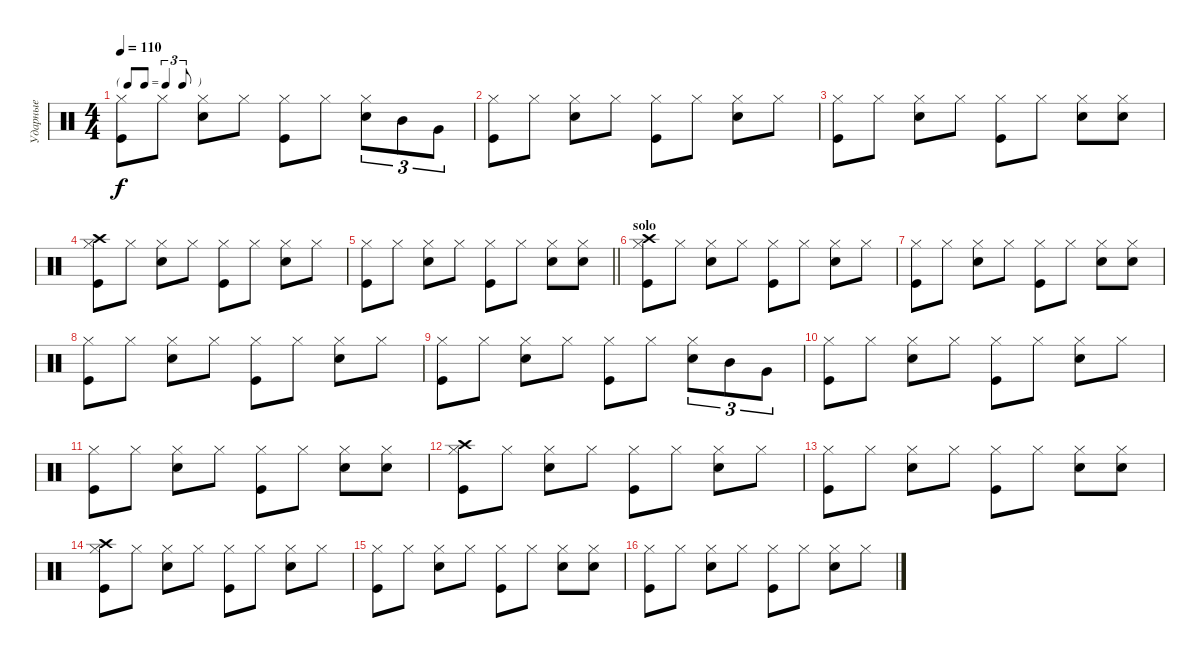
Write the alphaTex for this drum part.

\track ("Ударные" "Ударные") {instrument percussion}
\staff {score}
\articulation defaults
\ts (4 4)
\tf triplet8th
\tempo 110
\clef neutral
\ks c
("Hi-Hat (closed)" "Kick (hit)").8{dy f} "Hi-Hat (closed)".8 ("Hi-Hat (closed)" "Snare (hit) 2").8 "Hi-Hat (closed)".8 ("Hi-Hat (closed)" "Kick (hit)").8 "Hi-Hat (closed)".8 ("Hi-Hat (closed)" "Snare (hit) 2").8{tu (3 2)} "Mid Tom (hit)".8{tu (3 2)} "Very Low Tom (hit)".8{tu (3 2)} |
("Hi-Hat (closed)" "Kick (hit)").8 "Hi-Hat (closed)".8 ("Hi-Hat (closed)" "Snare (hit) 2").8 "Hi-Hat (closed)".8 ("Hi-Hat (closed)" "Kick (hit)").8 "Hi-Hat (closed)".8 ("Hi-Hat (closed)" "Snare (hit) 2").8 "Hi-Hat (closed)".8 |
("Hi-Hat (closed)" "Kick (hit)").8 "Hi-Hat (closed)".8 ("Hi-Hat (closed)" "Snare (hit) 2").8 "Hi-Hat (closed)".8 ("Hi-Hat (closed)" "Kick (hit)").8 "Hi-Hat (closed)".8 ("Hi-Hat (closed)" "Snare (hit) 2").8 ("Hi-Hat (closed)" "Snare (hit) 2").8 |
("Hi-Hat (closed)" "Kick (hit)" "Crash high (hit)").8 "Hi-Hat (closed)".8 ("Hi-Hat (closed)" "Snare (hit) 2").8 "Hi-Hat (closed)".8 ("Hi-Hat (closed)" "Kick (hit)").8 "Hi-Hat (closed)".8 ("Hi-Hat (closed)" "Snare (hit) 2").8 "Hi-Hat (closed)".8 |
\barLineRight lightlight
("Hi-Hat (closed)" "Kick (hit)").8 "Hi-Hat (closed)".8 ("Hi-Hat (closed)" "Snare (hit) 2").8 "Hi-Hat (closed)".8 ("Hi-Hat (closed)" "Kick (hit)").8 "Hi-Hat (closed)".8 ("Hi-Hat (closed)" "Snare (hit) 2").8 ("Hi-Hat (closed)" "Snare (hit) 2").8 |
\section ("" "solo")
("Hi-Hat (closed)" "Kick (hit)" "Crash high (hit)").8 "Hi-Hat (closed)".8 ("Hi-Hat (closed)" "Snare (hit) 2").8 "Hi-Hat (closed)".8 ("Hi-Hat (closed)" "Kick (hit)").8 "Hi-Hat (closed)".8 ("Hi-Hat (closed)" "Snare (hit) 2").8 "Hi-Hat (closed)".8 |
("Hi-Hat (closed)" "Kick (hit)").8 "Hi-Hat (closed)".8 ("Hi-Hat (closed)" "Snare (hit) 2").8 "Hi-Hat (closed)".8 ("Hi-Hat (closed)" "Kick (hit)").8 "Hi-Hat (closed)".8 ("Hi-Hat (closed)" "Snare (hit) 2").8 ("Hi-Hat (closed)" "Snare (hit) 2").8 |
("Hi-Hat (closed)" "Kick (hit)").8 "Hi-Hat (closed)".8 ("Hi-Hat (closed)" "Snare (hit) 2").8 "Hi-Hat (closed)".8 ("Hi-Hat (closed)" "Kick (hit)").8 "Hi-Hat (closed)".8 ("Hi-Hat (closed)" "Snare (hit) 2").8 "Hi-Hat (closed)".8 |
("Hi-Hat (closed)" "Kick (hit)").8 "Hi-Hat (closed)".8 ("Hi-Hat (closed)" "Snare (hit) 2").8 "Hi-Hat (closed)".8 ("Hi-Hat (closed)" "Kick (hit)").8 "Hi-Hat (closed)".8 ("Hi-Hat (closed)" "Snare (hit) 2").8{tu (3 2)} "Mid Tom (hit)".8{tu (3 2)} "Very Low Tom (hit)".8{tu (3 2)} |
("Hi-Hat (closed)" "Kick (hit)").8 "Hi-Hat (closed)".8 ("Hi-Hat (closed)" "Snare (hit) 2").8 "Hi-Hat (closed)".8 ("Hi-Hat (closed)" "Kick (hit)").8 "Hi-Hat (closed)".8 ("Hi-Hat (closed)" "Snare (hit) 2").8 "Hi-Hat (closed)".8 |
("Hi-Hat (closed)" "Kick (hit)").8 "Hi-Hat (closed)".8 ("Hi-Hat (closed)" "Snare (hit) 2").8 "Hi-Hat (closed)".8 ("Hi-Hat (closed)" "Kick (hit)").8 "Hi-Hat (closed)".8 ("Hi-Hat (closed)" "Snare (hit) 2").8 ("Hi-Hat (closed)" "Snare (hit) 2").8 |
("Hi-Hat (closed)" "Kick (hit)" "Crash high (hit)").8 "Hi-Hat (closed)".8 ("Hi-Hat (closed)" "Snare (hit) 2").8 "Hi-Hat (closed)".8 ("Hi-Hat (closed)" "Kick (hit)").8 "Hi-Hat (closed)".8 ("Hi-Hat (closed)" "Snare (hit) 2").8 "Hi-Hat (closed)".8 |
("Hi-Hat (closed)" "Kick (hit)").8 "Hi-Hat (closed)".8 ("Hi-Hat (closed)" "Snare (hit) 2").8 "Hi-Hat (closed)".8 ("Hi-Hat (closed)" "Kick (hit)").8 "Hi-Hat (closed)".8 ("Hi-Hat (closed)" "Snare (hit) 2").8 ("Hi-Hat (closed)" "Snare (hit) 2").8 |
("Hi-Hat (closed)" "Kick (hit)" "Crash high (hit)").8 "Hi-Hat (closed)".8 ("Hi-Hat (closed)" "Snare (hit) 2").8 "Hi-Hat (closed)".8 ("Hi-Hat (closed)" "Kick (hit)").8 "Hi-Hat (closed)".8 ("Hi-Hat (closed)" "Snare (hit) 2").8 "Hi-Hat (closed)".8 |
("Hi-Hat (closed)" "Kick (hit)").8 "Hi-Hat (closed)".8 ("Hi-Hat (closed)" "Snare (hit) 2").8 "Hi-Hat (closed)".8 ("Hi-Hat (closed)" "Kick (hit)").8 "Hi-Hat (closed)".8 ("Hi-Hat (closed)" "Snare (hit) 2").8 ("Hi-Hat (closed)" "Snare (hit) 2").8 |
("Hi-Hat (closed)" "Kick (hit)").8 "Hi-Hat (closed)".8 ("Hi-Hat (closed)" "Snare (hit) 2").8 "Hi-Hat (closed)".8 ("Hi-Hat (closed)" "Kick (hit)").8 "Hi-Hat (closed)".8 ("Hi-Hat (closed)" "Snare (hit) 2").8 "Hi-Hat (closed)".8
